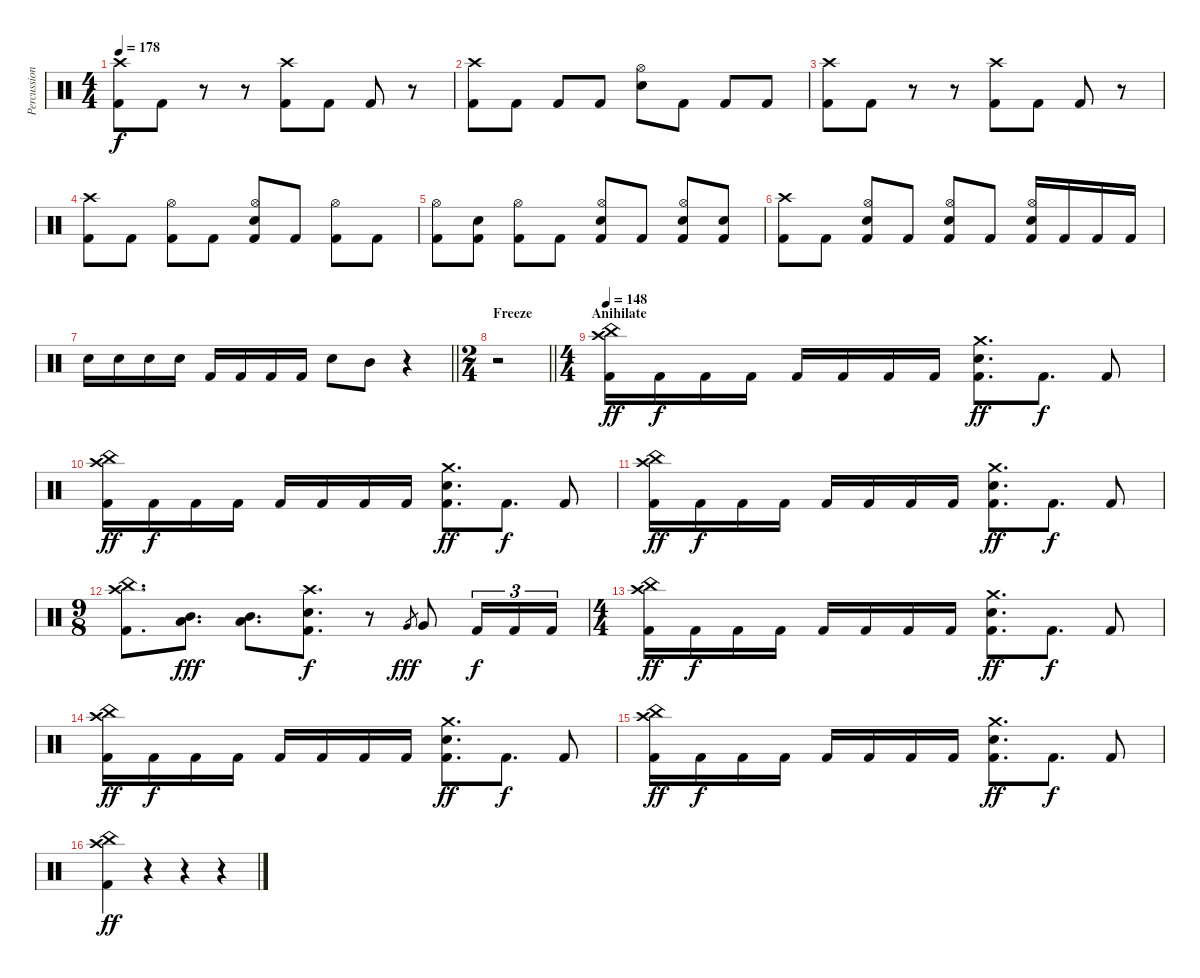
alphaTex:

\track ("Percussion" "Percussion") {instrument percussion}
\staff {score}
\articulation defaults
\ts (4 4)
\tempo 178
\clef neutral
\ks c
("Crash high (hit)" "Kick (hit) 2").8{dy f} "Kick (hit) 2".8 r.8 r.8 ("Crash high (hit)" "Kick (hit) 2").8 "Kick (hit) 2".8 "Kick (hit) 2".8 r.8 |
("Crash high (hit)" "Kick (hit) 2").8 "Kick (hit) 2".8 "Kick (hit) 2".8 "Kick (hit) 2".8 ("Hi-Hat (open)" "Electric Snare (hit)").8 "Kick (hit) 2".8 "Kick (hit) 2".8 "Kick (hit) 2".8 |
("Crash high (hit)" "Kick (hit) 2").8 "Kick (hit) 2".8 r.8 r.8 ("Crash high (hit)" "Kick (hit) 2").8 "Kick (hit) 2".8 "Kick (hit) 2".8 r.8 |
("Crash high (hit)" "Kick (hit) 2").8 "Kick (hit) 2".8 ("Hi-Hat (open)" "Kick (hit) 2").8 "Kick (hit) 2".8 ("Hi-Hat (open)" "Electric Snare (hit)" "Kick (hit) 2").8 "Kick (hit) 2".8 ("Hi-Hat (open)" "Kick (hit) 2").8 "Kick (hit) 2".8 |
("Hi-Hat (open)" "Kick (hit) 2").8 ("Electric Snare (hit)" "Kick (hit) 2").8 ("Hi-Hat (open)" "Kick (hit) 2").8 "Kick (hit) 2".8 ("Hi-Hat (open)" "Electric Snare (hit)" "Kick (hit) 2").8 "Kick (hit) 2".8 ("Hi-Hat (open)" "Electric Snare (hit)" "Kick (hit) 2").8 ("Electric Snare (hit)" "Kick (hit) 2").8 |
("Crash high (hit)" "Kick (hit) 2").8 "Kick (hit) 2".8 ("Hi-Hat (open)" "Electric Snare (hit)" "Kick (hit) 2").8 "Kick (hit) 2".8 ("Hi-Hat (open)" "Electric Snare (hit)" "Kick (hit) 2").8 "Kick (hit) 2".8 ("Hi-Hat (open)" "Electric Snare (hit)" "Kick (hit) 2").16 "Kick (hit) 2".16 "Kick (hit) 2".16 "Kick (hit) 2".16 |
\barLineRight lightlight "Electric Snare (hit)".16 "Electric Snare (hit)".16 "Electric Snare (hit)".16 "Electric Snare (hit)".16 "Kick (hit) 2".16 "Kick (hit) 2".16 "Kick (hit) 2".16 "Kick (hit) 2".16 "Electric Snare (hit)".8 "Mid Tom (hit)".8
r.4 |
\ts (2 4)
\section ("" "Freeze")
\barLineRight lightlight
r.2 |
\ts (4 4)
\section ("" "Anihilate")
\tempo 148
("Crash high (hit)" "China (hit)" "Kick (hit) 2").16{dy ff} "Kick (hit) 2".16{dy f} "Kick (hit) 2".16 "Kick (hit) 2".16 "Kick (hit) 2".16 "Kick (hit) 2".16 "Kick (hit) 2".16 "Kick (hit) 2".16 ("Crash medium (hit)" "Electric Snare (hit)" "Kick (hit) 2").8{d dy ff} "Kick (hit) 2".8{d dy f} "Kick (hit) 2".8 |
("Crash high (hit)" "China (hit)" "Kick (hit) 2").16{dy ff} "Kick (hit) 2".16{dy f} "Kick (hit) 2".16 "Kick (hit) 2".16 "Kick (hit) 2".16 "Kick (hit) 2".16 "Kick (hit) 2".16 "Kick (hit) 2".16 ("Crash medium (hit)" "Electric Snare (hit)" "Kick (hit) 2").8{d dy ff} "Kick (hit) 2".8{d dy f} "Kick (hit) 2".8 |
("Crash high (hit)" "China (hit)" "Kick (hit) 2").16{dy ff} "Kick (hit) 2".16{dy f} "Kick (hit) 2".16 "Kick (hit) 2".16 "Kick (hit) 2".16 "Kick (hit) 2".16 "Kick (hit) 2".16 "Kick (hit) 2".16 ("Crash medium (hit)" "Electric Snare (hit)" "Kick (hit) 2").8{d dy ff} "Kick (hit) 2".8{d dy f} "Kick (hit) 2".8 |
\ts (9 8)
("China (hit)" "Crash high (hit)" "Kick (hit) 2").8{d} ("Mid Tom (hit)" "Low Tom (hit)").8{d dy fff} ("Mid Tom (hit)" "Low Tom (hit)").8{d} ("Crash high (hit)" "Electric Snare (hit)" "Kick (hit) 2").8{d dy f} r.8 "Very Low Tom (hit)".8{gr dy fff} "Very Low Tom (hit)".8 "Kick (hit) 2".16{tu (3 2) dy f} "Kick (hit) 2".16{tu (3 2)} "Kick (hit) 2".16{tu (3 2)} |
\ts (4 4)
("Crash high (hit)" "China (hit)" "Kick (hit) 2").16{dy ff} "Kick (hit) 2".16{dy f} "Kick (hit) 2".16 "Kick (hit) 2".16 "Kick (hit) 2".16 "Kick (hit) 2".16 "Kick (hit) 2".16 "Kick (hit) 2".16 ("Crash medium (hit)" "Electric Snare (hit)" "Kick (hit) 2").8{d dy ff} "Kick (hit) 2".8{d dy f} "Kick (hit) 2".8 |
("Crash high (hit)" "China (hit)" "Kick (hit) 2").16{dy ff} "Kick (hit) 2".16{dy f} "Kick (hit) 2".16 "Kick (hit) 2".16 "Kick (hit) 2".16 "Kick (hit) 2".16 "Kick (hit) 2".16 "Kick (hit) 2".16 ("Crash medium (hit)" "Electric Snare (hit)" "Kick (hit) 2").8{d dy ff} "Kick (hit) 2".8{d dy f} "Kick (hit) 2".8 |
("Crash high (hit)" "China (hit)" "Kick (hit) 2").16{dy ff} "Kick (hit) 2".16{dy f} "Kick (hit) 2".16 "Kick (hit) 2".16 "Kick (hit) 2".16 "Kick (hit) 2".16 "Kick (hit) 2".16 "Kick (hit) 2".16 ("Crash medium (hit)" "Electric Snare (hit)" "Kick (hit) 2").8{d dy ff} "Kick (hit) 2".8{d dy f} "Kick (hit) 2".8 |
("Crash high (hit)" "China (hit)" "Kick (hit) 2").4{dy ff} r.4 r.4 r.4
